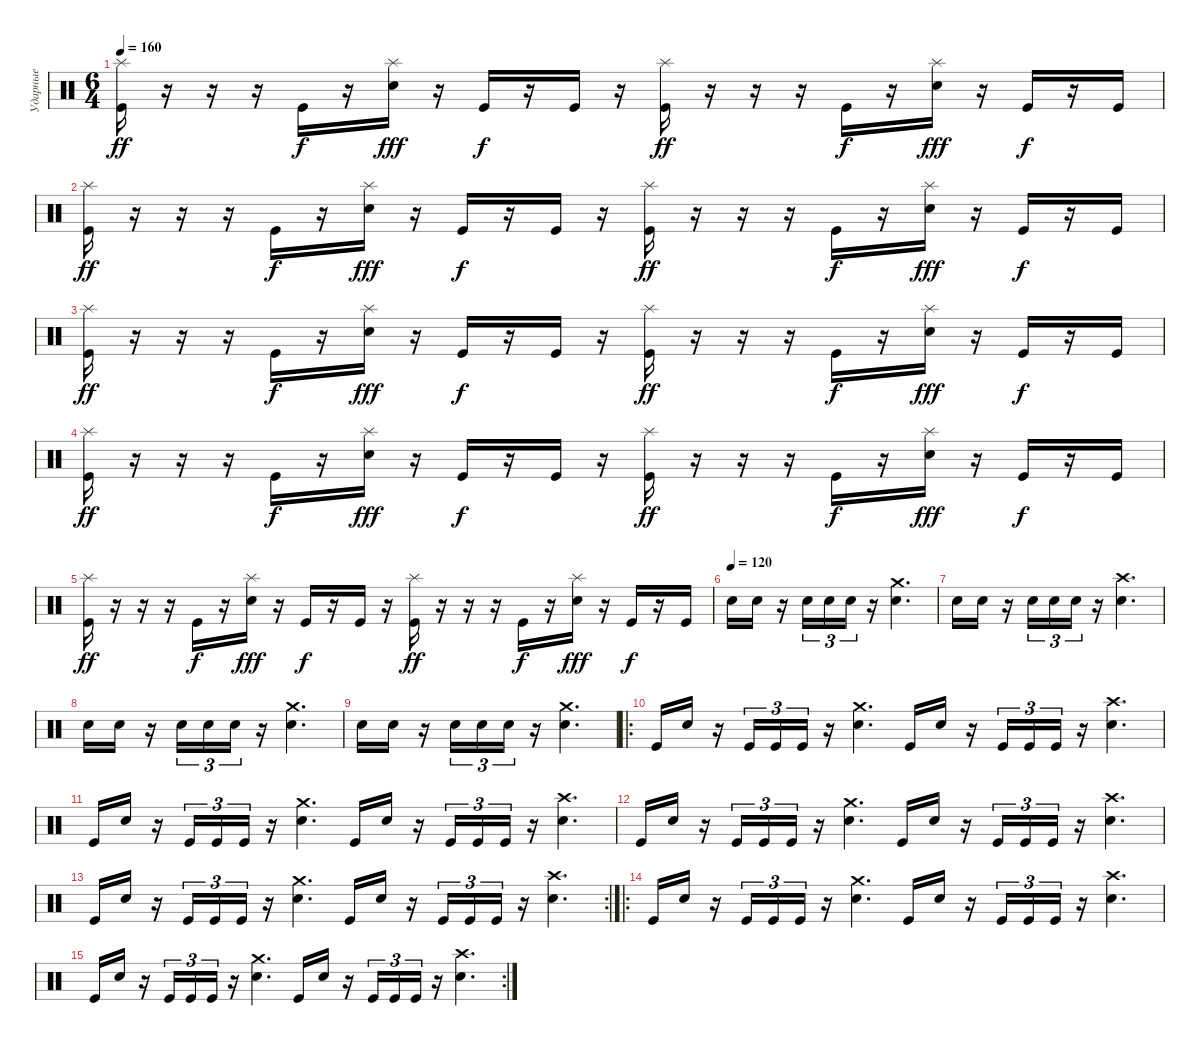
\track ("Ударные" "Ударные") {instrument percussion}
\staff {score}
\articulation defaults
\ts (6 4)
\tempo 160
\clef neutral
\ks c
("Splash (hit)" "Kick (hit)").16{dy ff} r.16 r.16 r.16 "Kick (hit)".16{dy f} r.16 ("Splash (hit)" "Electric Snare (hit)").16{dy fff} r.16 "Kick (hit)".16{dy f} r.16 "Kick (hit)".16 r.16 ("Splash (hit)" "Kick (hit)").16{dy ff} r.16 r.16 r.16 "Kick (hit)".16{dy f} r.16 ("Splash (hit)" "Electric Snare (hit)").16{dy fff} r.16 "Kick (hit)".16{dy f} r.16 "Kick (hit)".16 |
("Splash (hit)" "Kick (hit)").16{dy ff} r.16 r.16 r.16 "Kick (hit)".16{dy f} r.16 ("Splash (hit)" "Electric Snare (hit)").16{dy fff} r.16 "Kick (hit)".16{dy f} r.16 "Kick (hit)".16 r.16 ("Splash (hit)" "Kick (hit)").16{dy ff} r.16 r.16 r.16 "Kick (hit)".16{dy f} r.16 ("Splash (hit)" "Electric Snare (hit)").16{dy fff} r.16 "Kick (hit)".16{dy f} r.16 "Kick (hit)".16 |
("Splash (hit)" "Kick (hit)").16{dy ff} r.16 r.16 r.16 "Kick (hit)".16{dy f} r.16 ("Splash (hit)" "Electric Snare (hit)").16{dy fff} r.16 "Kick (hit)".16{dy f} r.16 "Kick (hit)".16 r.16 ("Splash (hit)" "Kick (hit)").16{dy ff} r.16 r.16 r.16 "Kick (hit)".16{dy f} r.16 ("Splash (hit)" "Electric Snare (hit)").16{dy fff} r.16 "Kick (hit)".16{dy f} r.16 "Kick (hit)".16 |
("Splash (hit)" "Kick (hit)").16{dy ff} r.16 r.16 r.16 "Kick (hit)".16{dy f} r.16 ("Splash (hit)" "Electric Snare (hit)").16{dy fff} r.16 "Kick (hit)".16{dy f} r.16 "Kick (hit)".16 r.16 ("Splash (hit)" "Kick (hit)").16{dy ff} r.16 r.16 r.16 "Kick (hit)".16{dy f} r.16 ("Splash (hit)" "Electric Snare (hit)").16{dy fff} r.16 "Kick (hit)".16{dy f} r.16 "Kick (hit)".16 |
("Splash (hit)" "Kick (hit)").16{dy ff} r.16 r.16 r.16 "Kick (hit)".16{dy f} r.16 ("Splash (hit)" "Electric Snare (hit)").16{dy fff} r.16 "Kick (hit)".16{dy f} r.16 "Kick (hit)".16 r.16 ("Splash (hit)" "Kick (hit)").16{dy ff} r.16 r.16 r.16 "Kick (hit)".16{dy f} r.16 ("Splash (hit)" "Electric Snare (hit)").16{dy fff} r.16 "Kick (hit)".16{dy f} r.16 "Kick (hit)".16 |
\tempo (120)
"Electric Snare (hit)".16 "Electric Snare (hit)".16 r.16 "Electric Snare (hit)".16{tu (3 2)} "Electric Snare (hit)".16{tu (3 2)} "Electric Snare (hit)".16{tu (3 2)} r.16 ("Crash medium (hit)" "Electric Snare (hit)").4{d} |
"Electric Snare (hit)".16 "Electric Snare (hit)".16 r.16 "Electric Snare (hit)".16{tu (3 2)} "Electric Snare (hit)".16{tu (3 2)} "Electric Snare (hit)".16{tu (3 2)} r.16 ("Crash high (hit)" "Electric Snare (hit)").4{d} |
"Electric Snare (hit)".16 "Electric Snare (hit)".16 r.16 "Electric Snare (hit)".16{tu (3 2)} "Electric Snare (hit)".16{tu (3 2)} "Electric Snare (hit)".16{tu (3 2)} r.16 ("Crash medium (hit)" "Electric Snare (hit)").4{d} |
"Electric Snare (hit)".16 "Electric Snare (hit)".16 r.16 "Electric Snare (hit)".16{tu (3 2)} "Electric Snare (hit)".16{tu (3 2)} "Electric Snare (hit)".16{tu (3 2)} r.16 ("Crash medium (hit)" "Electric Snare (hit)").4{d} |
\ro "Kick (hit)".16 "Electric Snare (hit)".16
r.16 "Kick (hit)".16{tu (3 2)} "Kick (hit)".16{tu (3 2)} "Kick (hit)".16{tu (3 2)} r.16 ("Crash medium (hit)" "Electric Snare (hit)").4{d} "Kick (hit)".16 "Electric Snare (hit)".16 r.16 "Kick (hit)".16{tu (3 2)} "Kick (hit)".16{tu (3 2)} "Kick (hit)".16{tu (3 2)} r.16 ("Crash high (hit)" "Electric Snare (hit)").4{d} |
"Kick (hit)".16 "Electric Snare (hit)".16 r.16 "Kick (hit)".16{tu (3 2)} "Kick (hit)".16{tu (3 2)} "Kick (hit)".16{tu (3 2)} r.16 ("Crash medium (hit)" "Electric Snare (hit)").4{d} "Kick (hit)".16 "Electric Snare (hit)".16 r.16 "Kick (hit)".16{tu (3 2)} "Kick (hit)".16{tu (3 2)} "Kick (hit)".16{tu (3 2)} r.16 ("Crash high (hit)" "Electric Snare (hit)").4{d} |
"Kick (hit)".16 "Electric Snare (hit)".16 r.16 "Kick (hit)".16{tu (3 2)} "Kick (hit)".16{tu (3 2)} "Kick (hit)".16{tu (3 2)} r.16 ("Crash medium (hit)" "Electric Snare (hit)").4{d} "Kick (hit)".16 "Electric Snare (hit)".16 r.16 "Kick (hit)".16{tu (3 2)} "Kick (hit)".16{tu (3 2)} "Kick (hit)".16{tu (3 2)} r.16 ("Crash high (hit)" "Electric Snare (hit)").4{d} |
\rc 2 "Kick (hit)".16 "Electric Snare (hit)".16
r.16 "Kick (hit)".16{tu (3 2)} "Kick (hit)".16{tu (3 2)} "Kick (hit)".16{tu (3 2)} r.16 ("Crash medium (hit)" "Electric Snare (hit)").4{d} "Kick (hit)".16 "Electric Snare (hit)".16 r.16 "Kick (hit)".16{tu (3 2)} "Kick (hit)".16{tu (3 2)} "Kick (hit)".16{tu (3 2)} r.16 ("Crash high (hit)" "Electric Snare (hit)").4{d} |
\ro "Kick (hit)".16 "Electric Snare (hit)".16
r.16 "Kick (hit)".16{tu (3 2)} "Kick (hit)".16{tu (3 2)} "Kick (hit)".16{tu (3 2)} r.16 ("Crash medium (hit)" "Electric Snare (hit)").4{d} "Kick (hit)".16 "Electric Snare (hit)".16 r.16 "Kick (hit)".16{tu (3 2)} "Kick (hit)".16{tu (3 2)} "Kick (hit)".16{tu (3 2)} r.16 ("Crash high (hit)" "Electric Snare (hit)").4{d} |
\rc 2 "Kick (hit)".16 "Electric Snare (hit)".16
r.16 "Kick (hit)".16{tu (3 2)} "Kick (hit)".16{tu (3 2)} "Kick (hit)".16{tu (3 2)} r.16 ("Crash medium (hit)" "Electric Snare (hit)").4{d} "Kick (hit)".16 "Electric Snare (hit)".16 r.16 "Kick (hit)".16{tu (3 2)} "Kick (hit)".16{tu (3 2)} "Kick (hit)".16{tu (3 2)} r.16 ("Crash high (hit)" "Electric Snare (hit)").4{d}
